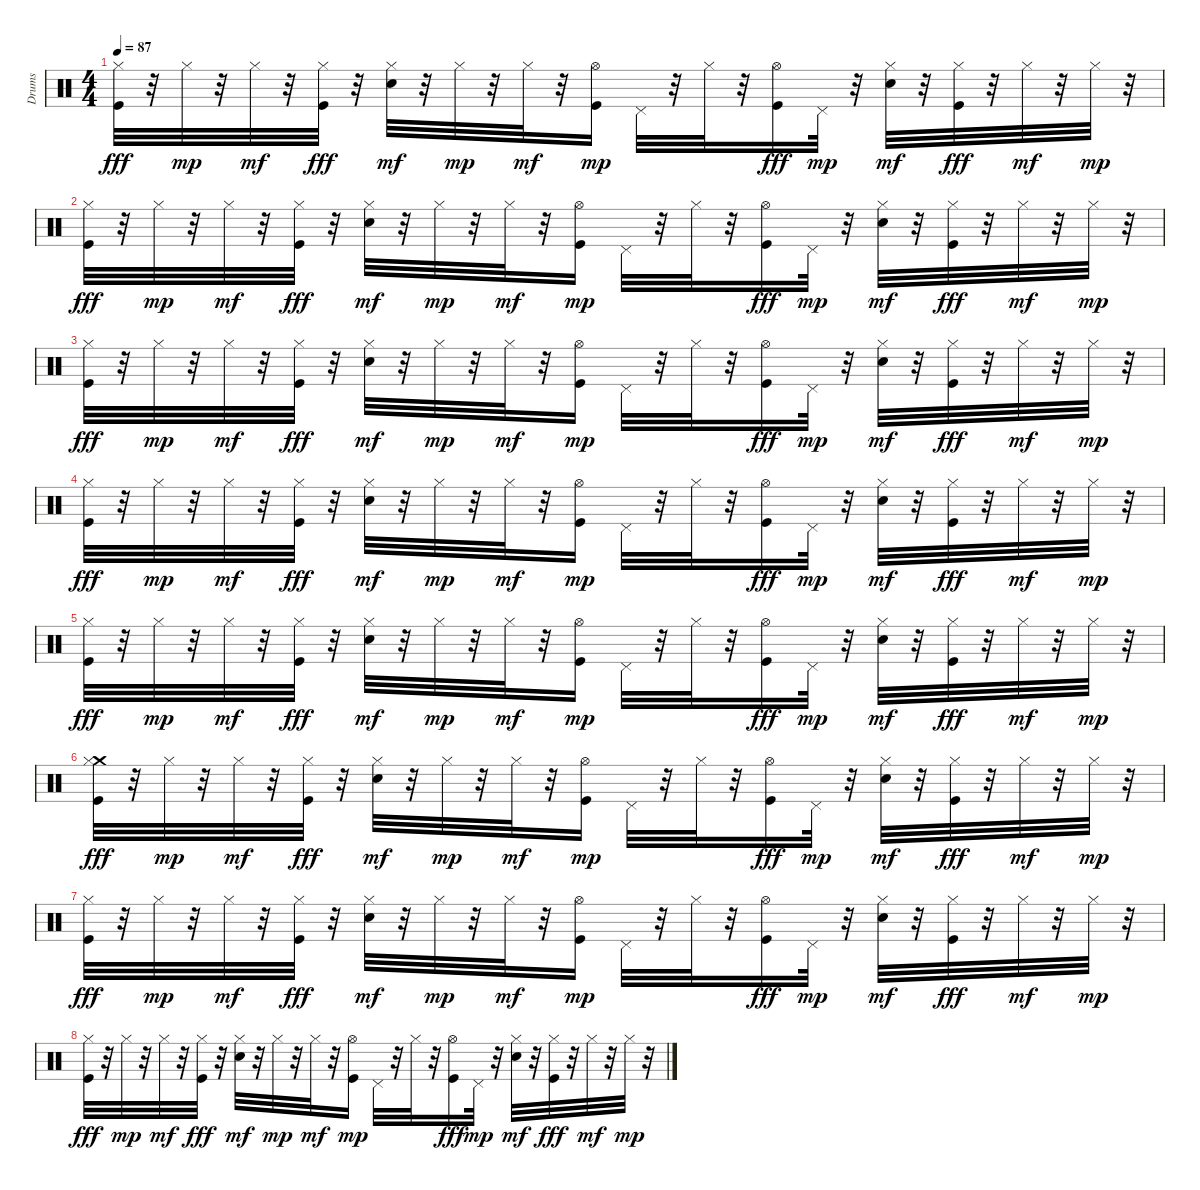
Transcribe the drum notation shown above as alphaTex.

\track ("Drums" "Drums") {instrument percussion}
\staff {score}
\articulation defaults
\ts (4 4)
\tempo 87
\clef neutral
\ks c
("Hi-Hat (closed)" "Kick (hit)").32{dy fff} r.32 "Hi-Hat (closed)".32{dy mp} r.32 "Hi-Hat (closed)".32{dy mf} r.32 ("Hi-Hat (closed)" "Kick (hit)").32{dy fff} r.32 ("Hi-Hat (closed)" "Electric Snare (hit)").32{dy mf} r.32 "Hi-Hat (closed)".32{dy mp} r.32 "Hi-Hat (closed)".32{dy mf} r.32 ("Kick (hit)" "Hi-Hat (open)").16{dy mp} "Pedal Hi-Hat (hit)".32 r.32 "Hi-Hat (closed)".32 r.32 ("Hi-Hat (open)" "Kick (hit)").16{dy fff} "Pedal Hi-Hat (hit)".32{dy mp} r.32 ("Hi-Hat (closed)" "Electric Snare (hit)").32{dy mf} r.32 ("Hi-Hat (closed)" "Kick (hit)").32{dy fff} r.32 "Hi-Hat (closed)".32{dy mf} r.32 "Hi-Hat (closed)".32{dy mp} r.32 |
("Hi-Hat (closed)" "Kick (hit)").32{dy fff} r.32 "Hi-Hat (closed)".32{dy mp} r.32 "Hi-Hat (closed)".32{dy mf} r.32 ("Hi-Hat (closed)" "Kick (hit)").32{dy fff} r.32 ("Hi-Hat (closed)" "Electric Snare (hit)").32{dy mf} r.32 "Hi-Hat (closed)".32{dy mp} r.32 "Hi-Hat (closed)".32{dy mf} r.32 ("Kick (hit)" "Hi-Hat (open)").16{dy mp} "Pedal Hi-Hat (hit)".32 r.32 "Hi-Hat (closed)".32 r.32 ("Hi-Hat (open)" "Kick (hit)").16{dy fff} "Pedal Hi-Hat (hit)".32{dy mp} r.32 ("Hi-Hat (closed)" "Electric Snare (hit)").32{dy mf} r.32 ("Hi-Hat (closed)" "Kick (hit)").32{dy fff} r.32 "Hi-Hat (closed)".32{dy mf} r.32 "Hi-Hat (closed)".32{dy mp} r.32 |
("Hi-Hat (closed)" "Kick (hit)").32{dy fff} r.32 "Hi-Hat (closed)".32{dy mp} r.32 "Hi-Hat (closed)".32{dy mf} r.32 ("Hi-Hat (closed)" "Kick (hit)").32{dy fff} r.32 ("Hi-Hat (closed)" "Electric Snare (hit)").32{dy mf} r.32 "Hi-Hat (closed)".32{dy mp} r.32 "Hi-Hat (closed)".32{dy mf} r.32 ("Kick (hit)" "Hi-Hat (open)").16{dy mp} "Pedal Hi-Hat (hit)".32 r.32 "Hi-Hat (closed)".32 r.32 ("Hi-Hat (open)" "Kick (hit)").16{dy fff} "Pedal Hi-Hat (hit)".32{dy mp} r.32 ("Hi-Hat (closed)" "Electric Snare (hit)").32{dy mf} r.32 ("Hi-Hat (closed)" "Kick (hit)").32{dy fff} r.32 "Hi-Hat (closed)".32{dy mf} r.32 "Hi-Hat (closed)".32{dy mp} r.32 |
("Hi-Hat (closed)" "Kick (hit)").32{dy fff} r.32 "Hi-Hat (closed)".32{dy mp} r.32 "Hi-Hat (closed)".32{dy mf} r.32 ("Hi-Hat (closed)" "Kick (hit)").32{dy fff} r.32 ("Hi-Hat (closed)" "Electric Snare (hit)").32{dy mf} r.32 "Hi-Hat (closed)".32{dy mp} r.32 "Hi-Hat (closed)".32{dy mf} r.32 ("Kick (hit)" "Hi-Hat (open)").16{dy mp} "Pedal Hi-Hat (hit)".32 r.32 "Hi-Hat (closed)".32 r.32 ("Hi-Hat (open)" "Kick (hit)").16{dy fff} "Pedal Hi-Hat (hit)".32{dy mp} r.32 ("Hi-Hat (closed)" "Electric Snare (hit)").32{dy mf} r.32 ("Hi-Hat (closed)" "Kick (hit)").32{dy fff} r.32 "Hi-Hat (closed)".32{dy mf} r.32 "Hi-Hat (closed)".32{dy mp} r.32 |
("Hi-Hat (closed)" "Kick (hit)").32{dy fff} r.32 "Hi-Hat (closed)".32{dy mp} r.32 "Hi-Hat (closed)".32{dy mf} r.32 ("Hi-Hat (closed)" "Kick (hit)").32{dy fff} r.32 ("Hi-Hat (closed)" "Electric Snare (hit)").32{dy mf} r.32 "Hi-Hat (closed)".32{dy mp} r.32 "Hi-Hat (closed)".32{dy mf} r.32 ("Kick (hit)" "Hi-Hat (open)").16{dy mp} "Pedal Hi-Hat (hit)".32 r.32 "Hi-Hat (closed)".32 r.32 ("Hi-Hat (open)" "Kick (hit)").16{dy fff} "Pedal Hi-Hat (hit)".32{dy mp} r.32 ("Hi-Hat (closed)" "Electric Snare (hit)").32{dy mf} r.32 ("Hi-Hat (closed)" "Kick (hit)").32{dy fff} r.32 "Hi-Hat (closed)".32{dy mf} r.32 "Hi-Hat (closed)".32{dy mp} r.32 |
("Crash medium (hit)" "Hi-Hat (closed)" "Kick (hit)").32{dy fff} r.32 "Hi-Hat (closed)".32{dy mp} r.32 "Hi-Hat (closed)".32{dy mf} r.32 ("Hi-Hat (closed)" "Kick (hit)").32{dy fff} r.32 ("Hi-Hat (closed)" "Electric Snare (hit)").32{dy mf} r.32 "Hi-Hat (closed)".32{dy mp} r.32 "Hi-Hat (closed)".32{dy mf} r.32 ("Kick (hit)" "Hi-Hat (open)").16{dy mp} "Pedal Hi-Hat (hit)".32 r.32 "Hi-Hat (closed)".32 r.32 ("Hi-Hat (open)" "Kick (hit)").16{dy fff} "Pedal Hi-Hat (hit)".32{dy mp} r.32 ("Hi-Hat (closed)" "Electric Snare (hit)").32{dy mf} r.32 ("Hi-Hat (closed)" "Kick (hit)").32{dy fff} r.32 "Hi-Hat (closed)".32{dy mf} r.32 "Hi-Hat (closed)".32{dy mp} r.32 |
("Hi-Hat (closed)" "Kick (hit)").32{dy fff} r.32 "Hi-Hat (closed)".32{dy mp} r.32 "Hi-Hat (closed)".32{dy mf} r.32 ("Hi-Hat (closed)" "Kick (hit)").32{dy fff} r.32 ("Hi-Hat (closed)" "Electric Snare (hit)").32{dy mf} r.32 "Hi-Hat (closed)".32{dy mp} r.32 "Hi-Hat (closed)".32{dy mf} r.32 ("Kick (hit)" "Hi-Hat (open)").16{dy mp} "Pedal Hi-Hat (hit)".32 r.32 "Hi-Hat (closed)".32 r.32 ("Hi-Hat (open)" "Kick (hit)").16{dy fff} "Pedal Hi-Hat (hit)".32{dy mp} r.32 ("Hi-Hat (closed)" "Electric Snare (hit)").32{dy mf} r.32 ("Hi-Hat (closed)" "Kick (hit)").32{dy fff} r.32 "Hi-Hat (closed)".32{dy mf} r.32 "Hi-Hat (closed)".32{dy mp} r.32 |
("Hi-Hat (closed)" "Kick (hit)").32{dy fff} r.32 "Hi-Hat (closed)".32{dy mp} r.32 "Hi-Hat (closed)".32{dy mf} r.32 ("Hi-Hat (closed)" "Kick (hit)").32{dy fff} r.32 ("Hi-Hat (closed)" "Electric Snare (hit)").32{dy mf} r.32 "Hi-Hat (closed)".32{dy mp} r.32 "Hi-Hat (closed)".32{dy mf} r.32 ("Kick (hit)" "Hi-Hat (open)").16{dy mp} "Pedal Hi-Hat (hit)".32 r.32 "Hi-Hat (closed)".32 r.32 ("Hi-Hat (open)" "Kick (hit)").16{dy fff} "Pedal Hi-Hat (hit)".32{dy mp} r.32 ("Hi-Hat (closed)" "Electric Snare (hit)").32{dy mf} r.32 ("Hi-Hat (closed)" "Kick (hit)").32{dy fff} r.32 "Hi-Hat (closed)".32{dy mf} r.32 "Hi-Hat (closed)".32{dy mp} r.32
